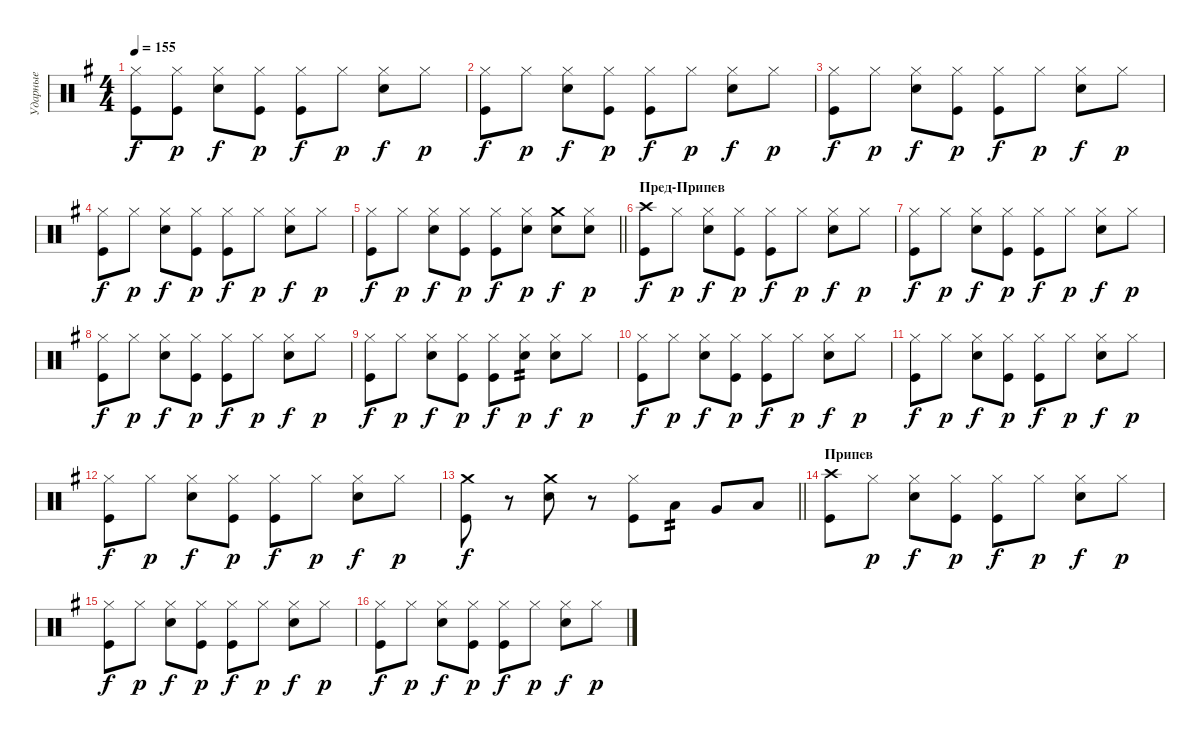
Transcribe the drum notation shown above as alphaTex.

\track ("Ударные" "Ударные") {instrument percussion}
\staff {score}
\articulation defaults
\ts (4 4)
\tempo 155
\clef neutral
\ks eminor
("Hi-Hat (closed)" "Kick (hit)").8{dy f} ("Hi-Hat (closed)" "Kick (hit)").8{dy p} ("Hi-Hat (closed)" "Snare (hit) 2").8{dy f} ("Hi-Hat (closed)" "Kick (hit)").8{dy p} ("Hi-Hat (closed)" "Kick (hit)").8{dy f} "Hi-Hat (closed)".8{dy p} ("Hi-Hat (closed)" "Snare (hit) 2").8{dy f} "Hi-Hat (closed)".8{dy p} |
("Hi-Hat (closed)" "Kick (hit)").8{dy f} "Hi-Hat (closed)".8{dy p} ("Hi-Hat (closed)" "Snare (hit) 2").8{dy f} ("Hi-Hat (closed)" "Kick (hit)").8{dy p} ("Hi-Hat (closed)" "Kick (hit)").8{dy f} "Hi-Hat (closed)".8{dy p} ("Hi-Hat (closed)" "Snare (hit) 2").8{dy f} "Hi-Hat (closed)".8{dy p} |
("Hi-Hat (closed)" "Kick (hit)").8{dy f} "Hi-Hat (closed)".8{dy p} ("Hi-Hat (closed)" "Snare (hit) 2").8{dy f} ("Hi-Hat (closed)" "Kick (hit)").8{dy p} ("Hi-Hat (closed)" "Kick (hit)").8{dy f} "Hi-Hat (closed)".8{dy p} ("Hi-Hat (closed)" "Snare (hit) 2").8{dy f} "Hi-Hat (closed)".8{dy p} |
("Hi-Hat (closed)" "Kick (hit)").8{dy f} "Hi-Hat (closed)".8{dy p} ("Hi-Hat (closed)" "Snare (hit) 2").8{dy f} ("Hi-Hat (closed)" "Kick (hit)").8{dy p} ("Hi-Hat (closed)" "Kick (hit)").8{dy f} "Hi-Hat (closed)".8{dy p} ("Hi-Hat (closed)" "Snare (hit) 2").8{dy f} "Hi-Hat (closed)".8{dy p} |
\barLineRight lightlight
("Hi-Hat (closed)" "Kick (hit)").8{dy f} "Hi-Hat (closed)".8{dy p} ("Hi-Hat (closed)" "Snare (hit) 2").8{dy f} ("Hi-Hat (closed)" "Kick (hit)").8{dy p} ("Hi-Hat (closed)" "Kick (hit)").8{dy f} ("Hi-Hat (closed)" "Snare (hit) 2").8{dy p} ("Crash medium (hit)" "Snare (hit) 2").8{dy f} ("Hi-Hat (closed)" "Snare (hit) 2").8{dy p} |
\section ("" "Пред-Припев")
("Crash high (hit)" "Kick (hit)").8{dy f} "Hi-Hat (closed)".8{dy p} ("Hi-Hat (closed)" "Snare (hit) 2").8{dy f} ("Hi-Hat (closed)" "Kick (hit)").8{dy p} ("Hi-Hat (closed)" "Kick (hit)").8{dy f} "Hi-Hat (closed)".8{dy p} ("Hi-Hat (closed)" "Snare (hit) 2").8{dy f} "Hi-Hat (closed)".8{dy p} |
("Hi-Hat (closed)" "Kick (hit)").8{dy f} "Hi-Hat (closed)".8{dy p} ("Hi-Hat (closed)" "Snare (hit) 2").8{dy f} ("Hi-Hat (closed)" "Kick (hit)").8{dy p} ("Hi-Hat (closed)" "Kick (hit)").8{dy f} "Hi-Hat (closed)".8{dy p} ("Hi-Hat (closed)" "Snare (hit) 2").8{dy f} "Hi-Hat (closed)".8{dy p} |
("Hi-Hat (closed)" "Kick (hit)").8{dy f} "Hi-Hat (closed)".8{dy p} ("Hi-Hat (closed)" "Snare (hit) 2").8{dy f} ("Hi-Hat (closed)" "Kick (hit)").8{dy p} ("Hi-Hat (closed)" "Kick (hit)").8{dy f} "Hi-Hat (closed)".8{dy p} ("Hi-Hat (closed)" "Snare (hit) 2").8{dy f} "Hi-Hat (closed)".8{dy p} |
("Hi-Hat (closed)" "Kick (hit)").8{dy f} "Hi-Hat (closed)".8{dy p} ("Hi-Hat (closed)" "Snare (hit) 2").8{dy f} ("Hi-Hat (closed)" "Kick (hit)").8{dy p} ("Hi-Hat (closed)" "Kick (hit)").8{dy f} ("Hi-Hat (closed)" "Snare (hit) 2").8{tp 2 dy p} ("Hi-Hat (closed)" "Snare (hit) 2").8{dy f} "Hi-Hat (closed)".8{dy p} |
("Hi-Hat (closed)" "Kick (hit)").8{dy f} "Hi-Hat (closed)".8{dy p} ("Hi-Hat (closed)" "Snare (hit) 2").8{dy f} ("Hi-Hat (closed)" "Kick (hit)").8{dy p} ("Hi-Hat (closed)" "Kick (hit)").8{dy f} "Hi-Hat (closed)".8{dy p} ("Hi-Hat (closed)" "Snare (hit) 2").8{dy f} "Hi-Hat (closed)".8{dy p} |
("Hi-Hat (closed)" "Kick (hit)").8{dy f} "Hi-Hat (closed)".8{dy p} ("Hi-Hat (closed)" "Snare (hit) 2").8{dy f} ("Hi-Hat (closed)" "Kick (hit)").8{dy p} ("Hi-Hat (closed)" "Kick (hit)").8{dy f} "Hi-Hat (closed)".8{dy p} ("Hi-Hat (closed)" "Snare (hit) 2").8{dy f} "Hi-Hat (closed)".8{dy p} |
("Hi-Hat (closed)" "Kick (hit)").8{dy f} "Hi-Hat (closed)".8{dy p} ("Hi-Hat (closed)" "Snare (hit) 2").8{dy f} ("Hi-Hat (closed)" "Kick (hit)").8{dy p} ("Hi-Hat (closed)" "Kick (hit)").8{dy f} "Hi-Hat (closed)".8{dy p} ("Hi-Hat (closed)" "Snare (hit) 2").8{dy f} "Hi-Hat (closed)".8{dy p} |
\barLineRight lightlight
("Crash medium (hit)" "Kick (hit)").8{dy f} r.8 ("Crash medium (hit)" "Snare (hit) 2").8 r.8 ("Hi-Hat (closed)" "Kick (hit)").8 "Low Tom (hit)".8{tp 2} "Very Low Tom (hit)".8 "Low Floor Tom (hit)".8 |
\section ("" "Припев")
("Crash high (hit)" "Kick (hit)").8 "Hi-Hat (closed)".8{dy p} ("Hi-Hat (closed)" "Snare (hit) 2").8{dy f} ("Hi-Hat (closed)" "Kick (hit)").8{dy p} ("Hi-Hat (closed)" "Kick (hit)").8{dy f} "Hi-Hat (closed)".8{dy p} ("Hi-Hat (closed)" "Snare (hit) 2").8{dy f} "Hi-Hat (closed)".8{dy p} |
("Hi-Hat (closed)" "Kick (hit)").8{dy f} "Hi-Hat (closed)".8{dy p} ("Hi-Hat (closed)" "Snare (hit) 2").8{dy f} ("Hi-Hat (closed)" "Kick (hit)").8{dy p} ("Hi-Hat (closed)" "Kick (hit)").8{dy f} "Hi-Hat (closed)".8{dy p} ("Hi-Hat (closed)" "Snare (hit) 2").8{dy f} "Hi-Hat (closed)".8{dy p} |
("Hi-Hat (closed)" "Kick (hit)").8{dy f} "Hi-Hat (closed)".8{dy p} ("Hi-Hat (closed)" "Snare (hit) 2").8{dy f} ("Hi-Hat (closed)" "Kick (hit)").8{dy p} ("Hi-Hat (closed)" "Kick (hit)").8{dy f} "Hi-Hat (closed)".8{dy p} ("Hi-Hat (closed)" "Snare (hit) 2").8{dy f} "Hi-Hat (closed)".8{dy p}
